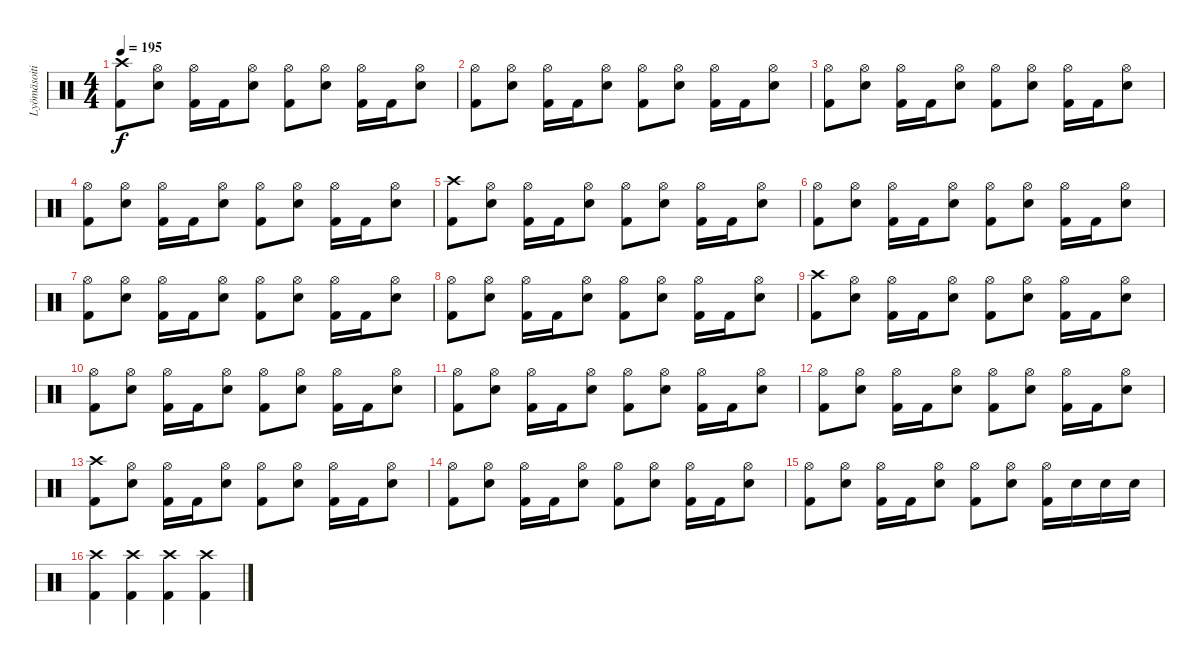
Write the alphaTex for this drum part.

\track ("Lyömäsoitin" "Lyömäsoiti") {instrument percussion}
\staff {score}
\articulation defaults
\ts (4 4)
\tempo 195
\clef neutral
\ks c
("Crash high (hit)" "Kick (hit) 2").8{dy f} ("Hi-Hat (open)" "Snare (hit) 2").8 ("Hi-Hat (open)" "Kick (hit) 2").16 "Kick (hit) 2".16 ("Hi-Hat (open)" "Snare (hit) 2").8 ("Hi-Hat (open)" "Kick (hit) 2").8 ("Hi-Hat (open)" "Snare (hit) 2").8 ("Hi-Hat (open)" "Kick (hit) 2").16 "Kick (hit) 2".16 ("Hi-Hat (open)" "Snare (hit) 2").8 |
("Hi-Hat (open)" "Kick (hit) 2").8 ("Hi-Hat (open)" "Snare (hit) 2").8 ("Hi-Hat (open)" "Kick (hit) 2").16 "Kick (hit) 2".16 ("Hi-Hat (open)" "Snare (hit) 2").8 ("Hi-Hat (open)" "Kick (hit) 2").8 ("Hi-Hat (open)" "Snare (hit) 2").8 ("Hi-Hat (open)" "Kick (hit) 2").16 "Kick (hit) 2".16 ("Hi-Hat (open)" "Snare (hit) 2").8 |
("Hi-Hat (open)" "Kick (hit) 2").8 ("Hi-Hat (open)" "Snare (hit) 2").8 ("Hi-Hat (open)" "Kick (hit) 2").16 "Kick (hit) 2".16 ("Hi-Hat (open)" "Snare (hit) 2").8 ("Hi-Hat (open)" "Kick (hit) 2").8 ("Hi-Hat (open)" "Snare (hit) 2").8 ("Hi-Hat (open)" "Kick (hit) 2").16 "Kick (hit) 2".16 ("Hi-Hat (open)" "Snare (hit) 2").8 |
("Hi-Hat (open)" "Kick (hit) 2").8 ("Hi-Hat (open)" "Snare (hit) 2").8 ("Hi-Hat (open)" "Kick (hit) 2").16 "Kick (hit) 2".16 ("Hi-Hat (open)" "Snare (hit) 2").8 ("Hi-Hat (open)" "Kick (hit) 2").8 ("Hi-Hat (open)" "Snare (hit) 2").8 ("Hi-Hat (open)" "Kick (hit) 2").16 "Kick (hit) 2".16 ("Hi-Hat (open)" "Snare (hit) 2").8 |
("Crash high (hit)" "Kick (hit) 2").8 ("Hi-Hat (open)" "Snare (hit) 2").8 ("Hi-Hat (open)" "Kick (hit) 2").16 "Kick (hit) 2".16 ("Hi-Hat (open)" "Snare (hit) 2").8 ("Hi-Hat (open)" "Kick (hit) 2").8 ("Hi-Hat (open)" "Snare (hit) 2").8 ("Hi-Hat (open)" "Kick (hit) 2").16 "Kick (hit) 2".16 ("Hi-Hat (open)" "Snare (hit) 2").8 |
("Hi-Hat (open)" "Kick (hit) 2").8 ("Hi-Hat (open)" "Snare (hit) 2").8 ("Hi-Hat (open)" "Kick (hit) 2").16 "Kick (hit) 2".16 ("Hi-Hat (open)" "Snare (hit) 2").8 ("Hi-Hat (open)" "Kick (hit) 2").8 ("Hi-Hat (open)" "Snare (hit) 2").8 ("Hi-Hat (open)" "Kick (hit) 2").16 "Kick (hit) 2".16 ("Hi-Hat (open)" "Snare (hit) 2").8 |
("Hi-Hat (open)" "Kick (hit) 2").8 ("Hi-Hat (open)" "Snare (hit) 2").8 ("Hi-Hat (open)" "Kick (hit) 2").16 "Kick (hit) 2".16 ("Hi-Hat (open)" "Snare (hit) 2").8 ("Hi-Hat (open)" "Kick (hit) 2").8 ("Hi-Hat (open)" "Snare (hit) 2").8 ("Hi-Hat (open)" "Kick (hit) 2").16 "Kick (hit) 2".16 ("Hi-Hat (open)" "Snare (hit) 2").8 |
("Hi-Hat (open)" "Kick (hit) 2").8 ("Hi-Hat (open)" "Snare (hit) 2").8 ("Hi-Hat (open)" "Kick (hit) 2").16 "Kick (hit) 2".16 ("Hi-Hat (open)" "Snare (hit) 2").8 ("Hi-Hat (open)" "Kick (hit) 2").8 ("Hi-Hat (open)" "Snare (hit) 2").8 ("Hi-Hat (open)" "Kick (hit) 2").16 "Kick (hit) 2".16 ("Hi-Hat (open)" "Snare (hit) 2").8 |
("Crash high (hit)" "Kick (hit) 2").8 ("Hi-Hat (open)" "Snare (hit) 2").8 ("Hi-Hat (open)" "Kick (hit) 2").16 "Kick (hit) 2".16 ("Hi-Hat (open)" "Snare (hit) 2").8 ("Hi-Hat (open)" "Kick (hit) 2").8 ("Hi-Hat (open)" "Snare (hit) 2").8 ("Hi-Hat (open)" "Kick (hit) 2").16 "Kick (hit) 2".16 ("Hi-Hat (open)" "Snare (hit) 2").8 |
("Hi-Hat (open)" "Kick (hit) 2").8 ("Hi-Hat (open)" "Snare (hit) 2").8 ("Hi-Hat (open)" "Kick (hit) 2").16 "Kick (hit) 2".16 ("Hi-Hat (open)" "Snare (hit) 2").8 ("Hi-Hat (open)" "Kick (hit) 2").8 ("Hi-Hat (open)" "Snare (hit) 2").8 ("Hi-Hat (open)" "Kick (hit) 2").16 "Kick (hit) 2".16 ("Hi-Hat (open)" "Snare (hit) 2").8 |
("Hi-Hat (open)" "Kick (hit) 2").8 ("Hi-Hat (open)" "Snare (hit) 2").8 ("Hi-Hat (open)" "Kick (hit) 2").16 "Kick (hit) 2".16 ("Hi-Hat (open)" "Snare (hit) 2").8 ("Hi-Hat (open)" "Kick (hit) 2").8 ("Hi-Hat (open)" "Snare (hit) 2").8 ("Hi-Hat (open)" "Kick (hit) 2").16 "Kick (hit) 2".16 ("Hi-Hat (open)" "Snare (hit) 2").8 |
("Hi-Hat (open)" "Kick (hit) 2").8 ("Hi-Hat (open)" "Snare (hit) 2").8 ("Hi-Hat (open)" "Kick (hit) 2").16 "Kick (hit) 2".16 ("Hi-Hat (open)" "Snare (hit) 2").8 ("Hi-Hat (open)" "Kick (hit) 2").8 ("Hi-Hat (open)" "Snare (hit) 2").8 ("Hi-Hat (open)" "Kick (hit) 2").16 "Kick (hit) 2".16 ("Hi-Hat (open)" "Snare (hit) 2").8 |
("Crash high (hit)" "Kick (hit) 2").8 ("Hi-Hat (open)" "Snare (hit) 2").8 ("Hi-Hat (open)" "Kick (hit) 2").16 "Kick (hit) 2".16 ("Hi-Hat (open)" "Snare (hit) 2").8 ("Hi-Hat (open)" "Kick (hit) 2").8 ("Hi-Hat (open)" "Snare (hit) 2").8 ("Hi-Hat (open)" "Kick (hit) 2").16 "Kick (hit) 2".16 ("Hi-Hat (open)" "Snare (hit) 2").8 |
("Hi-Hat (open)" "Kick (hit) 2").8 ("Hi-Hat (open)" "Snare (hit) 2").8 ("Hi-Hat (open)" "Kick (hit) 2").16 "Kick (hit) 2".16 ("Hi-Hat (open)" "Snare (hit) 2").8 ("Hi-Hat (open)" "Kick (hit) 2").8 ("Hi-Hat (open)" "Snare (hit) 2").8 ("Hi-Hat (open)" "Kick (hit) 2").16 "Kick (hit) 2".16 ("Hi-Hat (open)" "Snare (hit) 2").8 |
("Hi-Hat (open)" "Kick (hit) 2").8 ("Hi-Hat (open)" "Snare (hit) 2").8 ("Hi-Hat (open)" "Kick (hit) 2").16 "Kick (hit) 2".16 ("Hi-Hat (open)" "Snare (hit) 2").8 ("Hi-Hat (open)" "Kick (hit) 2").8 ("Hi-Hat (open)" "Snare (hit) 2").8 ("Hi-Hat (open)" "Kick (hit) 2").16 "Snare (hit) 2".16 "Snare (hit) 2".16 "Snare (hit) 2".16 |
("Crash high (hit)" "Kick (hit) 2").4 ("Crash high (hit)" "Kick (hit) 2").4 ("Crash high (hit)" "Kick (hit) 2").4 ("Crash high (hit)" "Kick (hit) 2").4
